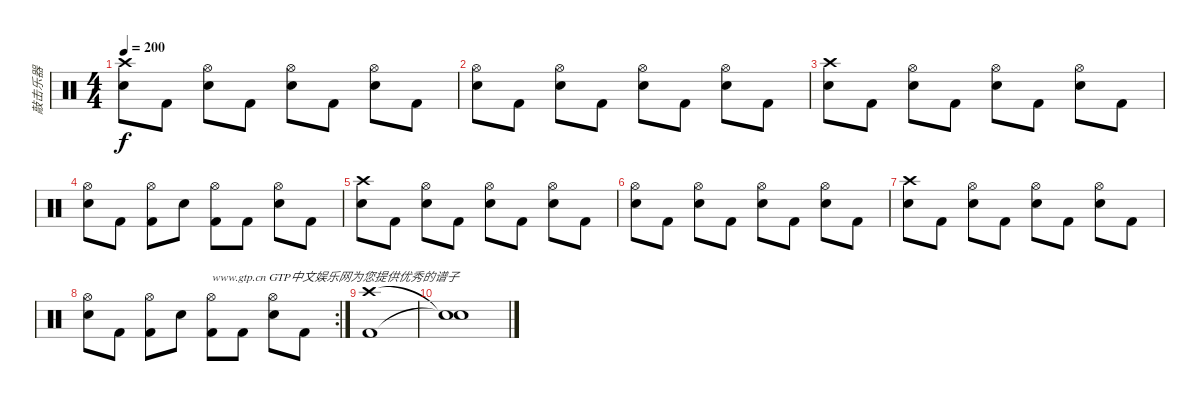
\track ("敲击乐器" "敲击乐器") {instrument percussion}
\staff {score}
\articulation defaults
\ts (4 4)
\tempo 200
\clef neutral
\ks c
("Crash high (hit)" "Electric Snare (hit)").8{dy f} "Kick (hit) 2".8 ("Hi-Hat (open)" "Electric Snare (hit)").8 "Kick (hit) 2".8 ("Hi-Hat (open)" "Electric Snare (hit)").8 "Kick (hit) 2".8 ("Hi-Hat (open)" "Electric Snare (hit)").8 "Kick (hit) 2".8 |
("Hi-Hat (open)" "Electric Snare (hit)").8 "Kick (hit) 2".8 ("Hi-Hat (open)" "Electric Snare (hit)").8 "Kick (hit) 2".8 ("Hi-Hat (open)" "Electric Snare (hit)").8 "Kick (hit) 2".8 ("Hi-Hat (open)" "Electric Snare (hit)").8 "Kick (hit) 2".8 |
("Crash high (hit)" "Electric Snare (hit)").8 "Kick (hit) 2".8 ("Hi-Hat (open)" "Electric Snare (hit)").8 "Kick (hit) 2".8 ("Hi-Hat (open)" "Electric Snare (hit)").8 "Kick (hit) 2".8 ("Hi-Hat (open)" "Electric Snare (hit)").8 "Kick (hit) 2".8 |
("Hi-Hat (open)" "Electric Snare (hit)").8 "Kick (hit) 2".8 ("Hi-Hat (open)" "Kick (hit) 2").8 "Electric Snare (hit)".8 ("Hi-Hat (open)" "Kick (hit) 2").8 "Kick (hit) 2".8 ("Hi-Hat (open)" "Electric Snare (hit)").8 "Kick (hit) 2".8 |
("Crash high (hit)" "Electric Snare (hit)").8 "Kick (hit) 2".8 ("Hi-Hat (open)" "Electric Snare (hit)").8 "Kick (hit) 2".8 ("Hi-Hat (open)" "Electric Snare (hit)").8 "Kick (hit) 2".8 ("Hi-Hat (open)" "Electric Snare (hit)").8 "Kick (hit) 2".8 |
("Hi-Hat (open)" "Electric Snare (hit)").8 "Kick (hit) 2".8 ("Hi-Hat (open)" "Electric Snare (hit)").8 "Kick (hit) 2".8 ("Hi-Hat (open)" "Electric Snare (hit)").8 "Kick (hit) 2".8 ("Hi-Hat (open)" "Electric Snare (hit)").8 "Kick (hit) 2".8 |
("Crash high (hit)" "Electric Snare (hit)").8 "Kick (hit) 2".8 ("Hi-Hat (open)" "Electric Snare (hit)").8 "Kick (hit) 2".8 ("Hi-Hat (open)" "Electric Snare (hit)").8 "Kick (hit) 2".8 ("Hi-Hat (open)" "Electric Snare (hit)").8 "Kick (hit) 2".8 |
\rc 2
("Hi-Hat (open)" "Electric Snare (hit)").8 "Kick (hit) 2".8 ("Hi-Hat (open)" "Kick (hit) 2").8 "Electric Snare (hit)".8 ("Hi-Hat (open)" "Kick (hit) 2").8{txt "www.gtp.cn GTP中文娱乐网为您提供优秀的谱子"} "Kick (hit) 2".8 ("Hi-Hat (open)" "Electric Snare (hit)").8 "Kick (hit) 2".8 |
("Crash high (hit)" "Kick (hit) 2").1 |
("Snare (hit)"{t} "Snare (hit)"{t}).1
